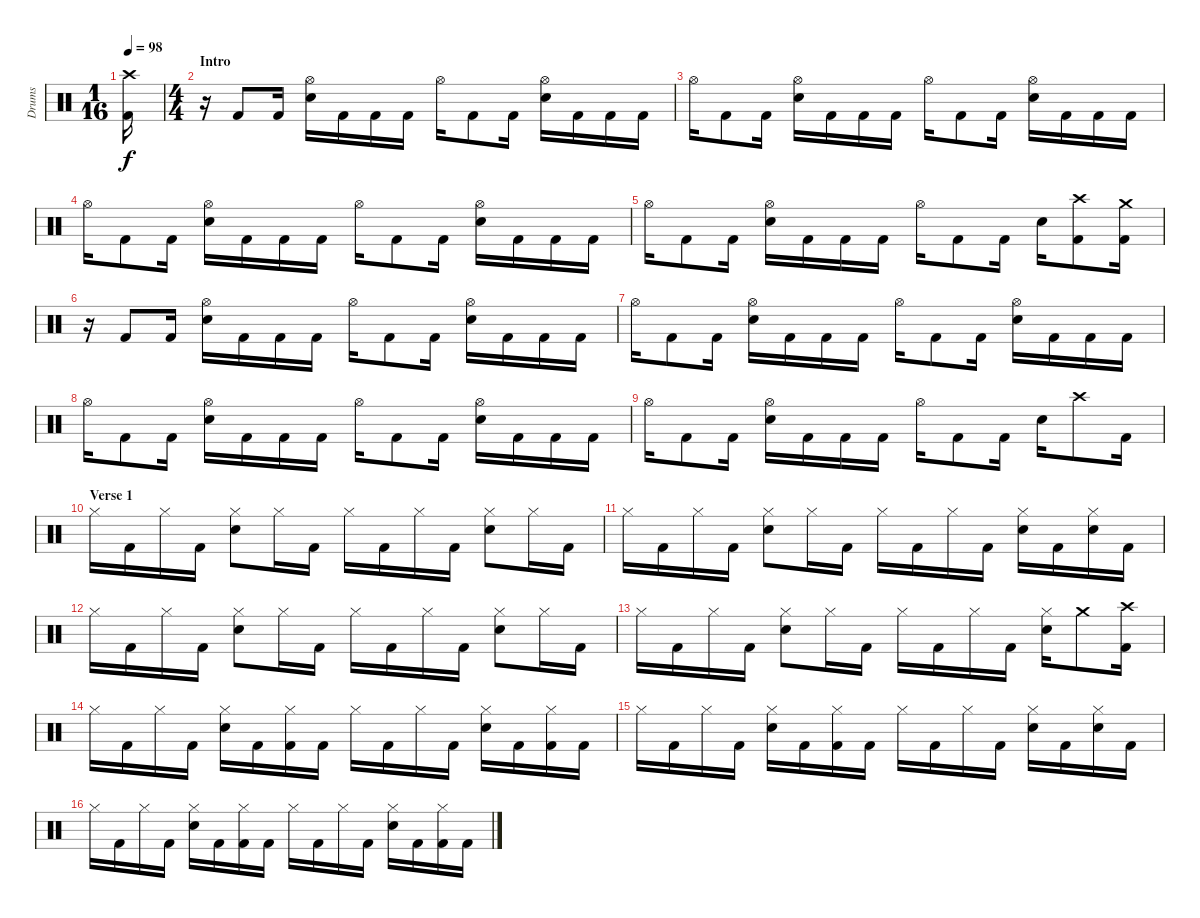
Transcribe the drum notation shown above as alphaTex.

\track ("Drums" "Drums") {instrument percussion}
\staff {score}
\articulation defaults
\ts (1 16)
\tempo 98
\clef neutral
\ks c
("Crash high (hit)" "Kick (hit) 2").16{dy f} |
\ts (4 4)
\section ("" "Intro")
r.16 "Kick (hit) 2".8 "Kick (hit) 2".16 ("Hi-Hat (open)" "Electric Snare (hit)").16 "Kick (hit) 2".16 "Kick (hit) 2".16 "Kick (hit) 2".16 "Hi-Hat (open)".16 "Kick (hit) 2".8 "Kick (hit) 2".16 ("Hi-Hat (open)" "Electric Snare (hit)").16 "Kick (hit) 2".16 "Kick (hit) 2".16 "Kick (hit) 2".16 |
"Hi-Hat (open)".16 "Kick (hit) 2".8 "Kick (hit) 2".16 ("Hi-Hat (open)" "Electric Snare (hit)").16 "Kick (hit) 2".16 "Kick (hit) 2".16 "Kick (hit) 2".16 "Hi-Hat (open)".16 "Kick (hit) 2".8 "Kick (hit) 2".16 ("Hi-Hat (open)" "Electric Snare (hit)").16 "Kick (hit) 2".16 "Kick (hit) 2".16 "Kick (hit) 2".16 |
"Hi-Hat (open)".16 "Kick (hit) 2".8 "Kick (hit) 2".16 ("Hi-Hat (open)" "Electric Snare (hit)").16 "Kick (hit) 2".16 "Kick (hit) 2".16 "Kick (hit) 2".16 "Hi-Hat (open)".16 "Kick (hit) 2".8 "Kick (hit) 2".16 ("Hi-Hat (open)" "Electric Snare (hit)").16 "Kick (hit) 2".16 "Kick (hit) 2".16 "Kick (hit) 2".16 |
"Hi-Hat (open)".16 "Kick (hit) 2".8 "Kick (hit) 2".16 ("Hi-Hat (open)" "Electric Snare (hit)").16 "Kick (hit) 2".16 "Kick (hit) 2".16 "Kick (hit) 2".16 "Hi-Hat (open)".16 "Kick (hit) 2".8 "Kick (hit) 2".16 "Electric Snare (hit)".16 ("Crash high (hit)" "Kick (hit) 2").8 ("Crash medium (hit)" "Kick (hit) 2").16 |
r.16 "Kick (hit) 2".8 "Kick (hit) 2".16 ("Hi-Hat (open)" "Electric Snare (hit)").16 "Kick (hit) 2".16 "Kick (hit) 2".16 "Kick (hit) 2".16 "Hi-Hat (open)".16 "Kick (hit) 2".8 "Kick (hit) 2".16 ("Hi-Hat (open)" "Electric Snare (hit)").16 "Kick (hit) 2".16 "Kick (hit) 2".16 "Kick (hit) 2".16 |
"Hi-Hat (open)".16 "Kick (hit) 2".8 "Kick (hit) 2".16 ("Hi-Hat (open)" "Electric Snare (hit)").16 "Kick (hit) 2".16 "Kick (hit) 2".16 "Kick (hit) 2".16 "Hi-Hat (open)".16 "Kick (hit) 2".8 "Kick (hit) 2".16 ("Hi-Hat (open)" "Electric Snare (hit)").16 "Kick (hit) 2".16 "Kick (hit) 2".16 "Kick (hit) 2".16 |
"Hi-Hat (open)".16 "Kick (hit) 2".8 "Kick (hit) 2".16 ("Hi-Hat (open)" "Electric Snare (hit)").16 "Kick (hit) 2".16 "Kick (hit) 2".16 "Kick (hit) 2".16 "Hi-Hat (open)".16 "Kick (hit) 2".8 "Kick (hit) 2".16 ("Hi-Hat (open)" "Electric Snare (hit)").16 "Kick (hit) 2".16 "Kick (hit) 2".16 "Kick (hit) 2".16 |
"Hi-Hat (open)".16 "Kick (hit) 2".8 "Kick (hit) 2".16 ("Hi-Hat (open)" "Electric Snare (hit)").16 "Kick (hit) 2".16 "Kick (hit) 2".16 "Kick (hit) 2".16 "Hi-Hat (open)".16 "Kick (hit) 2".8 "Kick (hit) 2".16 "Electric Snare (hit)".16 "Crash high (hit)".8 "Kick (hit) 2".16 |
\section ("" "Verse 1")
"Hi-Hat (closed)".16 "Kick (hit) 2".16 "Hi-Hat (closed)".16 "Kick (hit) 2".16 ("Hi-Hat (closed)" "Electric Snare (hit)").8 "Hi-Hat (closed)".16 "Kick (hit) 2".16 "Hi-Hat (closed)".16 "Kick (hit) 2".16 "Hi-Hat (closed)".16 "Kick (hit) 2".16 ("Hi-Hat (closed)" "Electric Snare (hit)").8 "Hi-Hat (closed)".16 "Kick (hit) 2".16 |
"Hi-Hat (closed)".16 "Kick (hit) 2".16 "Hi-Hat (closed)".16 "Kick (hit) 2".16 ("Hi-Hat (closed)" "Electric Snare (hit)").8 "Hi-Hat (closed)".16 "Kick (hit) 2".16 "Hi-Hat (closed)".16 "Kick (hit) 2".16 "Hi-Hat (closed)".16 "Kick (hit) 2".16 ("Hi-Hat (closed)" "Electric Snare (hit)").16 "Kick (hit) 2".16 ("Hi-Hat (closed)" "Electric Snare (hit)").16 "Kick (hit) 2".16 |
"Hi-Hat (closed)".16 "Kick (hit) 2".16 "Hi-Hat (closed)".16 "Kick (hit) 2".16 ("Hi-Hat (closed)" "Electric Snare (hit)").8 "Hi-Hat (closed)".16 "Kick (hit) 2".16 "Hi-Hat (closed)".16 "Kick (hit) 2".16 "Hi-Hat (closed)".16 "Kick (hit) 2".16 ("Hi-Hat (closed)" "Electric Snare (hit)").8 "Hi-Hat (closed)".16 "Kick (hit) 2".16 |
"Hi-Hat (closed)".16 "Kick (hit) 2".16 "Hi-Hat (closed)".16 "Kick (hit) 2".16 ("Hi-Hat (closed)" "Electric Snare (hit)").8 "Hi-Hat (closed)".16 "Kick (hit) 2".16 "Hi-Hat (closed)".16 "Kick (hit) 2".16 "Hi-Hat (closed)".16 "Kick (hit) 2".16 ("Hi-Hat (closed)" "Electric Snare (hit)").16 "Crash medium (hit)".8 ("Crash high (hit)" "Kick (hit) 2").16 |
"Hi-Hat (closed)".16 "Kick (hit) 2".16 "Hi-Hat (closed)".16 "Kick (hit) 2".16 ("Hi-Hat (closed)" "Electric Snare (hit)").16 "Kick (hit) 2".16 ("Hi-Hat (closed)" "Kick (hit) 2").16 "Kick (hit) 2".16 "Hi-Hat (closed)".16 "Kick (hit) 2".16 "Hi-Hat (closed)".16 "Kick (hit) 2".16 ("Hi-Hat (closed)" "Electric Snare (hit)").16 "Kick (hit) 2".16 ("Hi-Hat (closed)" "Kick (hit) 2").16 "Kick (hit) 2".16 |
"Hi-Hat (closed)".16 "Kick (hit) 2".16 "Hi-Hat (closed)".16 "Kick (hit) 2".16 ("Hi-Hat (closed)" "Electric Snare (hit)").16 "Kick (hit) 2".16 ("Hi-Hat (closed)" "Kick (hit) 2").16 "Kick (hit) 2".16 "Hi-Hat (closed)".16 "Kick (hit) 2".16 "Hi-Hat (closed)".16 "Kick (hit) 2".16 ("Hi-Hat (closed)" "Electric Snare (hit)").16 "Kick (hit) 2".16 ("Hi-Hat (closed)" "Electric Snare (hit)").16 "Kick (hit) 2".16 |
"Hi-Hat (closed)".16 "Kick (hit) 2".16 "Hi-Hat (closed)".16 "Kick (hit) 2".16 ("Hi-Hat (closed)" "Electric Snare (hit)").16 "Kick (hit) 2".16 ("Hi-Hat (closed)" "Kick (hit) 2").16 "Kick (hit) 2".16 "Hi-Hat (closed)".16 "Kick (hit) 2".16 "Hi-Hat (closed)".16 "Kick (hit) 2".16 ("Hi-Hat (closed)" "Electric Snare (hit)").16 "Kick (hit) 2".16 ("Hi-Hat (closed)" "Kick (hit) 2").16 "Kick (hit) 2".16
